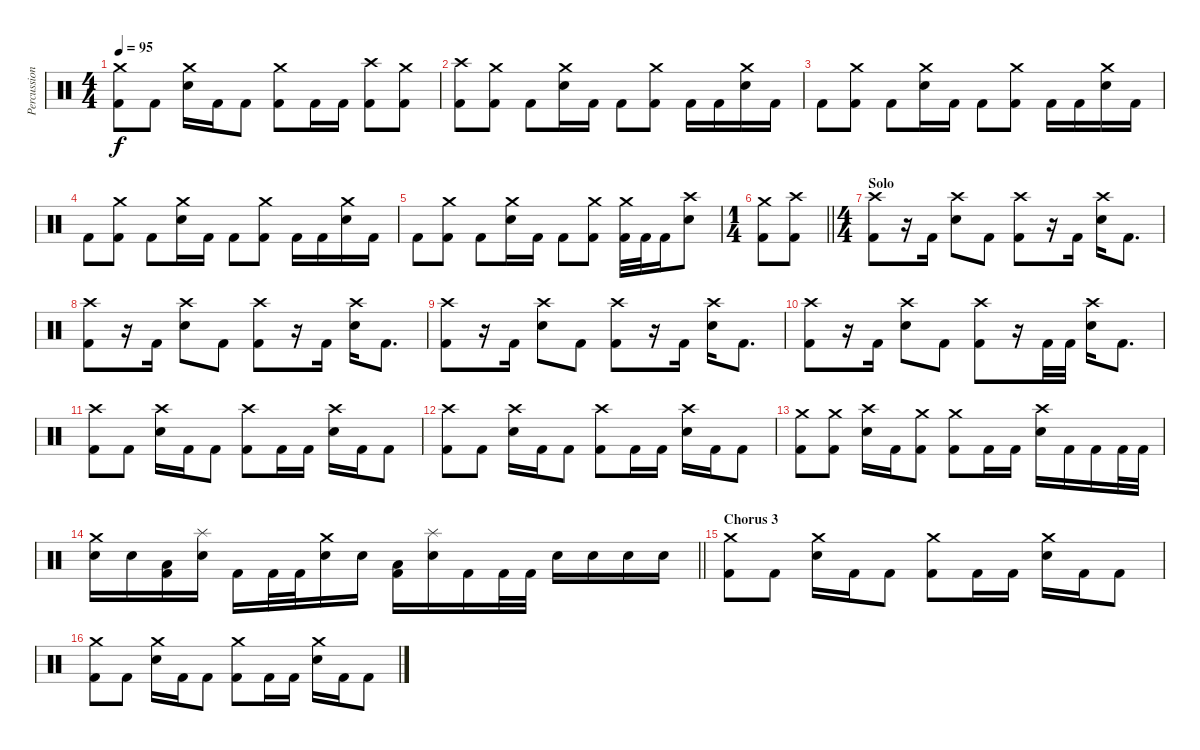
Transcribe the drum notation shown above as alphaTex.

\track ("Percussion" "Percussion") {instrument percussion}
\staff {score}
\articulation defaults
\ts (4 4)
\tempo 95
\clef neutral
\ks c
("Crash medium (hit)" "Kick (hit) 2").8{dy f} "Kick (hit) 2".8 ("Crash medium (hit)" "Electric Snare (hit)").16 "Kick (hit) 2".16 "Kick (hit) 2".8 ("Crash medium (hit)" "Kick (hit) 2").8 "Kick (hit) 2".16 "Kick (hit) 2".16 ("Crash high (hit)" "Kick (hit) 2").8 ("Crash medium (hit)" "Kick (hit) 2").8 |
("Crash high (hit)" "Kick (hit) 2").8 ("Crash medium (hit)" "Kick (hit) 2").8 "Kick (hit) 2".8 ("Crash medium (hit)" "Electric Snare (hit)").16 "Kick (hit) 2".16 "Kick (hit) 2".8 ("Crash medium (hit)" "Kick (hit) 2").8 "Kick (hit) 2".16 "Kick (hit) 2".16 ("Crash medium (hit)" "Electric Snare (hit)").16 "Kick (hit) 2".16 |
"Kick (hit) 2".8 ("Crash medium (hit)" "Kick (hit) 2").8 "Kick (hit) 2".8 ("Crash medium (hit)" "Electric Snare (hit)").16 "Kick (hit) 2".16 "Kick (hit) 2".8 ("Crash medium (hit)" "Kick (hit) 2").8 "Kick (hit) 2".16 "Kick (hit) 2".16 ("Crash medium (hit)" "Electric Snare (hit)").16 "Kick (hit) 2".16 |
"Kick (hit) 2".8 ("Crash medium (hit)" "Kick (hit) 2").8 "Kick (hit) 2".8 ("Crash medium (hit)" "Electric Snare (hit)").16 "Kick (hit) 2".16 "Kick (hit) 2".8 ("Crash medium (hit)" "Kick (hit) 2").8 "Kick (hit) 2".16 "Kick (hit) 2".16 ("Crash medium (hit)" "Electric Snare (hit)").16 "Kick (hit) 2".16 |
"Kick (hit) 2".8 ("Crash medium (hit)" "Kick (hit) 2").8 "Kick (hit) 2".8 ("Crash medium (hit)" "Electric Snare (hit)").16 "Kick (hit) 2".16 "Kick (hit) 2".8 ("Crash medium (hit)" "Kick (hit) 2").8 ("Crash medium (hit)" "Kick (hit) 2").32 "Kick (hit) 2".32 "Kick (hit) 2".16 ("Crash high (hit)" "Electric Snare (hit)").8 |
\ts (1 4)
\barLineRight lightlight
("Crash medium (hit)" "Kick (hit) 2").8 ("Crash high (hit)" "Kick (hit) 2").8 |
\ts (4 4)
\section ("" "Solo")
("Crash high (hit)" "Kick (hit) 2").8 r.16 "Kick (hit) 2".16 ("Crash high (hit)" "Electric Snare (hit)").8 "Kick (hit) 2".8 ("Crash high (hit)" "Kick (hit) 2").8 r.16 "Kick (hit) 2".16 ("Crash high (hit)" "Electric Snare (hit)").16 "Kick (hit) 2".8{d} |
("Crash high (hit)" "Kick (hit) 2").8 r.16 "Kick (hit) 2".16 ("Crash high (hit)" "Electric Snare (hit)").8 "Kick (hit) 2".8 ("Crash high (hit)" "Kick (hit) 2").8 r.16 "Kick (hit) 2".16 ("Crash high (hit)" "Electric Snare (hit)").16 "Kick (hit) 2".8{d} |
("Crash high (hit)" "Kick (hit) 2").8 r.16 "Kick (hit) 2".16 ("Crash high (hit)" "Electric Snare (hit)").8 "Kick (hit) 2".8 ("Crash high (hit)" "Kick (hit) 2").8 r.16 "Kick (hit) 2".16 ("Crash high (hit)" "Electric Snare (hit)").16 "Kick (hit) 2".8{d} |
("Crash high (hit)" "Kick (hit) 2").8 r.16 "Kick (hit) 2".16 ("Crash high (hit)" "Electric Snare (hit)").8 "Kick (hit) 2".8 ("Crash high (hit)" "Kick (hit) 2").8 r.16 "Kick (hit) 2".32 "Kick (hit) 2".32 ("Crash high (hit)" "Electric Snare (hit)").16 "Kick (hit) 2".8{d} |
("Crash high (hit)" "Kick (hit) 2").8 "Kick (hit) 2".8 ("Crash high (hit)" "Electric Snare (hit)").16 "Kick (hit) 2".16 "Kick (hit) 2".8 ("Crash high (hit)" "Kick (hit) 2").8 "Kick (hit) 2".16 "Kick (hit) 2".16 ("Crash high (hit)" "Electric Snare (hit)").16 "Kick (hit) 2".16 "Kick (hit) 2".8 |
("Crash high (hit)" "Kick (hit) 2").8 "Kick (hit) 2".8 ("Crash high (hit)" "Electric Snare (hit)").16 "Kick (hit) 2".16 "Kick (hit) 2".8 ("Crash high (hit)" "Kick (hit) 2").8 "Kick (hit) 2".16 "Kick (hit) 2".16 ("Crash high (hit)" "Electric Snare (hit)").16 "Kick (hit) 2".16 "Kick (hit) 2".8 |
("Crash medium (hit)" "Kick (hit) 2").8 ("Crash medium (hit)" "Kick (hit) 2").8 ("Crash high (hit)" "Electric Snare (hit)").16 "Kick (hit) 2".16 ("Crash medium (hit)" "Kick (hit) 2").8 ("Crash medium (hit)" "Kick (hit) 2").8 "Kick (hit) 2".16 "Kick (hit) 2".16 ("Crash high (hit)" "Electric Snare (hit)").16 "Kick (hit) 2".16 "Kick (hit) 2".16 "Kick (hit) 2".32 "Kick (hit) 2".32 |
\barLineRight lightlight
("Crash medium (hit)" "Electric Snare (hit)").16 "Electric Snare (hit)".16 ("Low Tom (hit)" "Kick (hit) 2").16 ("Splash (hit)" "Electric Snare (hit)").16 "Kick (hit) 2".16 "Kick (hit) 2".32 "Kick (hit) 2".32 ("Crash medium (hit)" "Electric Snare (hit)").16 "Electric Snare (hit)".16 ("Low Tom (hit)" "Kick (hit) 2").16 ("Splash (hit)" "Electric Snare (hit)").16 "Kick (hit) 2".16 "Kick (hit) 2".32 "Kick (hit) 2".32 "Electric Snare (hit)".16 "Electric Snare (hit)".16 "Electric Snare (hit)".16 "Electric Snare (hit)".16 |
\section ("" "Chorus 3")
("Crash medium (hit)" "Kick (hit) 2").8 "Kick (hit) 2".8 ("Crash medium (hit)" "Electric Snare (hit)").16 "Kick (hit) 2".16 "Kick (hit) 2".8 ("Crash medium (hit)" "Kick (hit) 2").8 "Kick (hit) 2".16 "Kick (hit) 2".16 ("Crash medium (hit)" "Electric Snare (hit)").16 "Kick (hit) 2".16 "Kick (hit) 2".8 |
("Crash medium (hit)" "Kick (hit) 2").8 "Kick (hit) 2".8 ("Crash medium (hit)" "Electric Snare (hit)").16 "Kick (hit) 2".16 "Kick (hit) 2".8 ("Crash medium (hit)" "Kick (hit) 2").8 "Kick (hit) 2".16 "Kick (hit) 2".16 ("Crash medium (hit)" "Electric Snare (hit)").16 "Kick (hit) 2".16 "Kick (hit) 2".8
